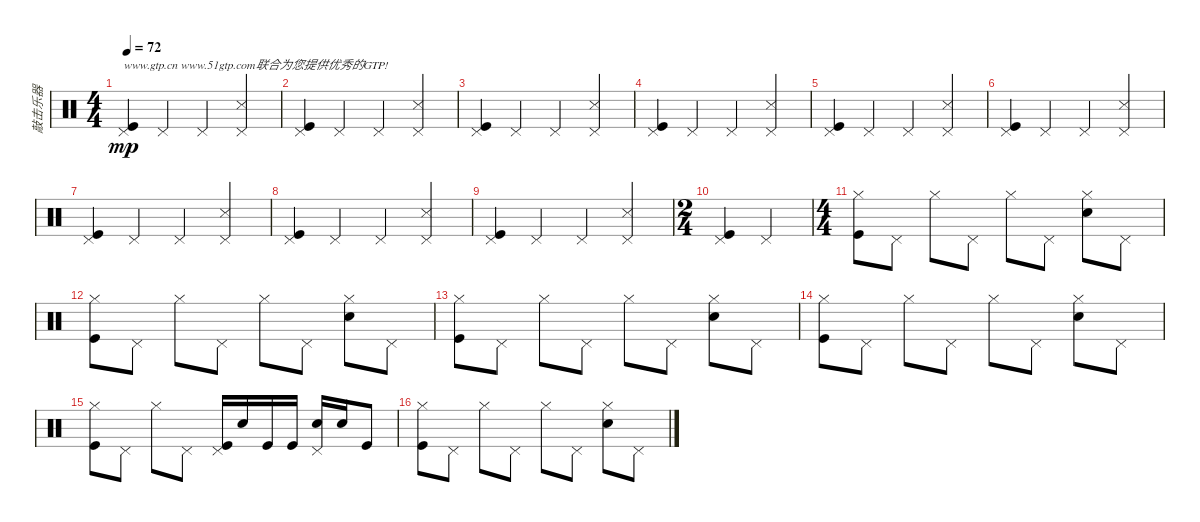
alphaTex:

\track ("敲击乐器" "敲击乐器") {instrument percussion}
\staff {score}
\articulation defaults
\ts (4 4)
\tempo 72
\clef neutral
\ks c
("Pedal Hi-Hat (hit)" "Kick (hit)").4{txt "www.gtp.cn www.51gtp.com联合为您提供优秀的GTP!" dy mp} "Pedal Hi-Hat (hit)".4 "Pedal Hi-Hat (hit)".4 ("Pedal Hi-Hat (hit)" "Snare (side stick) 3").4 |
("Pedal Hi-Hat (hit)" "Kick (hit)").4 "Pedal Hi-Hat (hit)".4 "Pedal Hi-Hat (hit)".4 ("Pedal Hi-Hat (hit)" "Snare (side stick) 3").4 |
("Pedal Hi-Hat (hit)" "Kick (hit)").4 "Pedal Hi-Hat (hit)".4 "Pedal Hi-Hat (hit)".4 ("Pedal Hi-Hat (hit)" "Snare (side stick) 3").4 |
("Pedal Hi-Hat (hit)" "Kick (hit)").4 "Pedal Hi-Hat (hit)".4 "Pedal Hi-Hat (hit)".4 ("Pedal Hi-Hat (hit)" "Snare (side stick) 3").4 |
("Pedal Hi-Hat (hit)" "Kick (hit)").4 "Pedal Hi-Hat (hit)".4 "Pedal Hi-Hat (hit)".4 ("Pedal Hi-Hat (hit)" "Snare (side stick) 3").4 |
("Pedal Hi-Hat (hit)" "Kick (hit)").4 "Pedal Hi-Hat (hit)".4 "Pedal Hi-Hat (hit)".4 ("Pedal Hi-Hat (hit)" "Snare (side stick) 3").4 |
("Pedal Hi-Hat (hit)" "Kick (hit)").4 "Pedal Hi-Hat (hit)".4 "Pedal Hi-Hat (hit)".4 ("Pedal Hi-Hat (hit)" "Snare (side stick) 3").4 |
("Pedal Hi-Hat (hit)" "Kick (hit)").4 "Pedal Hi-Hat (hit)".4 "Pedal Hi-Hat (hit)".4 ("Pedal Hi-Hat (hit)" "Snare (side stick) 3").4 |
("Pedal Hi-Hat (hit)" "Kick (hit)").4 "Pedal Hi-Hat (hit)".4 "Pedal Hi-Hat (hit)".4 ("Pedal Hi-Hat (hit)" "Snare (side stick) 3").4 |
\ts (2 4)
("Pedal Hi-Hat (hit)" "Kick (hit)").4 "Pedal Hi-Hat (hit)".4 |
\ts (4 4)
("Hi-Hat (closed)" "Kick (hit)").8 "Pedal Hi-Hat (hit)".8 "Hi-Hat (closed)".8 "Pedal Hi-Hat (hit)".8 "Hi-Hat (closed)".8 "Pedal Hi-Hat (hit)".8 ("Hi-Hat (closed)" "Electric Snare (hit)").8 "Pedal Hi-Hat (hit)".8 |
("Hi-Hat (closed)" "Kick (hit)").8 "Pedal Hi-Hat (hit)".8 "Hi-Hat (closed)".8 "Pedal Hi-Hat (hit)".8 "Hi-Hat (closed)".8 "Pedal Hi-Hat (hit)".8 ("Hi-Hat (closed)" "Electric Snare (hit)").8 "Pedal Hi-Hat (hit)".8 |
("Hi-Hat (closed)" "Kick (hit)").8 "Pedal Hi-Hat (hit)".8 "Hi-Hat (closed)".8 "Pedal Hi-Hat (hit)".8 "Hi-Hat (closed)".8 "Pedal Hi-Hat (hit)".8 ("Hi-Hat (closed)" "Electric Snare (hit)").8 "Pedal Hi-Hat (hit)".8 |
("Hi-Hat (closed)" "Kick (hit)").8 "Pedal Hi-Hat (hit)".8 "Hi-Hat (closed)".8 "Pedal Hi-Hat (hit)".8 "Hi-Hat (closed)".8 "Pedal Hi-Hat (hit)".8 ("Hi-Hat (closed)" "Electric Snare (hit)").8 "Pedal Hi-Hat (hit)".8 |
("Hi-Hat (closed)" "Kick (hit)").8 "Pedal Hi-Hat (hit)".8 "Hi-Hat (closed)".8 "Pedal Hi-Hat (hit)".8 ("Pedal Hi-Hat (hit)" "Kick (hit)").16 "Electric Snare (hit)".16 "Kick (hit)".16 "Kick (hit)".16 ("Pedal Hi-Hat (hit)" "Electric Snare (hit)").16 "Electric Snare (hit)".16 "Kick (hit)".8 |
("Hi-Hat (closed)" "Kick (hit)").8 "Pedal Hi-Hat (hit)".8 "Hi-Hat (closed)".8 "Pedal Hi-Hat (hit)".8 "Hi-Hat (closed)".8 "Pedal Hi-Hat (hit)".8 ("Hi-Hat (closed)" "Electric Snare (hit)").8 "Pedal Hi-Hat (hit)".8
